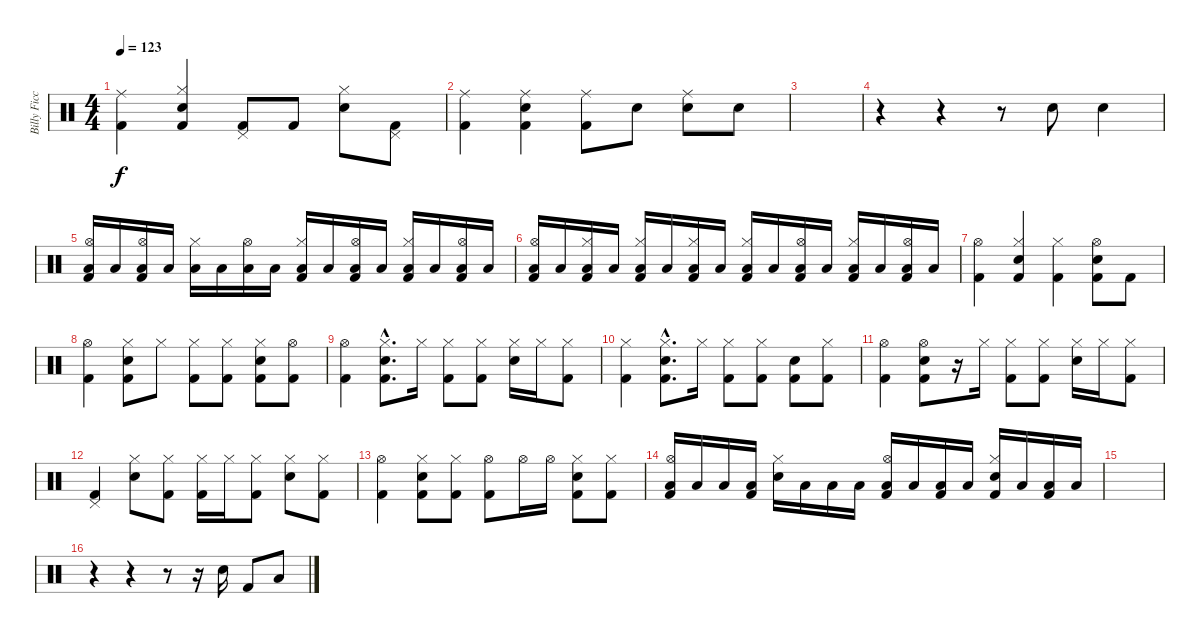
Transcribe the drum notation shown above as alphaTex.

\track ("Billy Ficca" "Billy Ficc") {instrument percussion}
\staff {score}
\articulation defaults
\ts (4 4)
\tempo 123
\clef neutral
\ks c
("Ride (middle)" "Kick (hit) 2").4{dy f} ("Hi-Hat (closed)" "Electric Snare (hit)" "Kick (hit) 2").4 ("Pedal Hi-Hat (hit)" "Kick (hit) 2").8 "Kick (hit) 2".8 ("Hi-Hat (closed)" "Electric Snare (hit)").8 ("Pedal Hi-Hat (hit)" "Kick (hit) 2").8 |
("Ride (middle)" "Kick (hit) 2").4 ("Ride (middle)" "Electric Snare (hit)" "Kick (hit) 2").4 ("Ride (middle)" "Kick (hit) 2").8 "Electric Snare (hit)".8 ("Ride (middle)" "Electric Snare (hit)").8 "Electric Snare (hit)".8 |
|
r.4 r.4 r.8 "Snare (hit) 2".8 "Snare (hit) 2".4 |
("Hi-Hat (open)" "Low Floor Tom (hit)" "Kick (hit) 2").16 "Low Floor Tom (hit)".16 ("Hi-Hat (open)" "Low Floor Tom (hit)" "Kick (hit) 2").16 "Low Floor Tom (hit)".16 ("Hi-Hat (closed)" "Low Floor Tom (hit)").16 "Low Floor Tom (hit)".16 ("Hi-Hat (open)" "Low Floor Tom (hit)").16 "Low Floor Tom (hit)".16 ("Hi-Hat (closed)" "Low Floor Tom (hit)" "Kick (hit) 2").16 "Low Floor Tom (hit)".16 ("Hi-Hat (open)" "Low Floor Tom (hit)" "Kick (hit) 2").16 "Low Floor Tom (hit)".16 ("Hi-Hat (closed)" "Low Floor Tom (hit)" "Kick (hit) 2").16 "Low Floor Tom (hit)".16 ("Hi-Hat (open)" "Low Floor Tom (hit)" "Kick (hit) 2").16 "Low Floor Tom (hit)".16 |
("Hi-Hat (open)" "Low Floor Tom (hit)" "Kick (hit) 2").16 "Low Floor Tom (hit)".16 ("Hi-Hat (closed)" "Low Floor Tom (hit)" "Kick (hit) 2").16 "Low Floor Tom (hit)".16 ("Hi-Hat (closed)" "Low Floor Tom (hit)" "Kick (hit) 2").16 "Low Floor Tom (hit)".16 ("Hi-Hat (closed)" "Low Floor Tom (hit)" "Kick (hit) 2").16 "Low Floor Tom (hit)".16 ("Hi-Hat (closed)" "Low Floor Tom (hit)" "Kick (hit) 2").16 "Low Floor Tom (hit)".16 ("Hi-Hat (open)" "Low Floor Tom (hit)" "Kick (hit) 2").16 "Low Floor Tom (hit)".16 ("Hi-Hat (closed)" "Low Floor Tom (hit)" "Kick (hit) 2").16 "Low Floor Tom (hit)".16 ("Hi-Hat (open)" "Low Floor Tom (hit)" "Kick (hit) 2").16 "Low Floor Tom (hit)".16 |
("Hi-Hat (open)" "Kick (hit) 2").4 ("Hi-Hat (closed)" "Electric Snare (hit)" "Kick (hit) 2").4 ("Hi-Hat (closed)" "Kick (hit) 2").4 ("Hi-Hat (open)" "Electric Snare (hit)" "Kick (hit) 2").8 "Kick (hit) 2".8 |
("Hi-Hat (open)" "Kick (hit) 2").4 ("Hi-Hat (closed)" "Electric Snare (hit)" "Kick (hit) 2").8 "Hi-Hat (closed)".8 ("Hi-Hat (closed)" "Kick (hit) 2").8 ("Hi-Hat (closed)" "Kick (hit) 2").8 ("Hi-Hat (closed)" "Electric Snare (hit)" "Kick (hit) 2").8 ("Hi-Hat (open)" "Kick (hit) 2").8 |
("Hi-Hat (open)" "Kick (hit) 2").4 ("Hi-Hat (closed)"{hac} "Electric Snare (hit)"{hac} "Kick (hit) 2"{hac}).8{d} "Hi-Hat (closed)".16 ("Hi-Hat (closed)" "Kick (hit) 2").8 ("Hi-Hat (closed)" "Kick (hit) 2").8 ("Hi-Hat (closed)" "Electric Snare (hit)").16 "Hi-Hat (closed)".16 ("Hi-Hat (closed)" "Kick (hit) 2").8 |
("Hi-Hat (closed)" "Kick (hit) 2").4 ("Hi-Hat (closed)"{hac} "Electric Snare (hit)"{hac} "Kick (hit) 2"{hac}).8{d} "Hi-Hat (closed)".16 ("Hi-Hat (closed)" "Kick (hit) 2").8 ("Hi-Hat (closed)" "Kick (hit) 2").8 ("Electric Snare (hit)" "Kick (hit) 2").8 ("Hi-Hat (closed)" "Kick (hit) 2").8 |
("Hi-Hat (open)" "Kick (hit) 2").4 ("Hi-Hat (open)" "Electric Snare (hit)" "Kick (hit) 2").8 r.16 "Hi-Hat (closed)".16 ("Hi-Hat (closed)" "Kick (hit) 2").8 ("Hi-Hat (closed)" "Kick (hit) 2").8 ("Hi-Hat (closed)" "Electric Snare (hit)").16 "Hi-Hat (closed)".16 ("Hi-Hat (closed)" "Kick (hit) 2").8 |
("Pedal Hi-Hat (hit)" "Kick (hit) 2").4 ("Hi-Hat (closed)" "Electric Snare (hit)").8 ("Hi-Hat (closed)" "Kick (hit) 2").8 ("Hi-Hat (closed)" "Kick (hit) 2").16 "Hi-Hat (closed)".16 ("Hi-Hat (closed)" "Kick (hit) 2").8 ("Hi-Hat (closed)" "Electric Snare (hit)").8 ("Hi-Hat (closed)" "Kick (hit) 2").8 |
("Hi-Hat (open)" "Kick (hit) 2").4 ("Hi-Hat (closed)" "Electric Snare (hit)" "Kick (hit) 2").8 ("Hi-Hat (closed)" "Kick (hit) 2").8 ("Hi-Hat (open)" "Kick (hit) 2").8 "Hi-Hat (open)".16 "Hi-Hat (open)".16 ("Hi-Hat (closed)" "Electric Snare (hit)" "Kick (hit) 2").8 ("Hi-Hat (closed)" "Kick (hit) 2").8 |
("Hi-Hat (open)" "Low Floor Tom (hit)" "Kick (hit) 2").16 "Low Floor Tom (hit)".16 "Low Floor Tom (hit)".16 ("Low Floor Tom (hit)" "Kick (hit) 2").16 ("Hi-Hat (closed)" "Electric Snare (hit)").16 "Low Floor Tom (hit)".16 "Low Floor Tom (hit)".16 "Low Floor Tom (hit)".16 ("Hi-Hat (open)" "Low Floor Tom (hit)" "Kick (hit) 2").16 "Low Floor Tom (hit)".16 ("Low Floor Tom (hit)" "Kick (hit) 2").16 "Low Floor Tom (hit)".16 ("Hi-Hat (closed)" "Electric Snare (hit)" "Kick (hit) 2").16 "Low Floor Tom (hit)".16 ("Low Floor Tom (hit)" "Kick (hit) 2").16 "Low Floor Tom (hit)".16 |
|
r.4 r.4 r.8 r.16 "Electric Snare (hit)".16 "Kick (hit) 2".8 "Low Floor Tom (hit)".8
